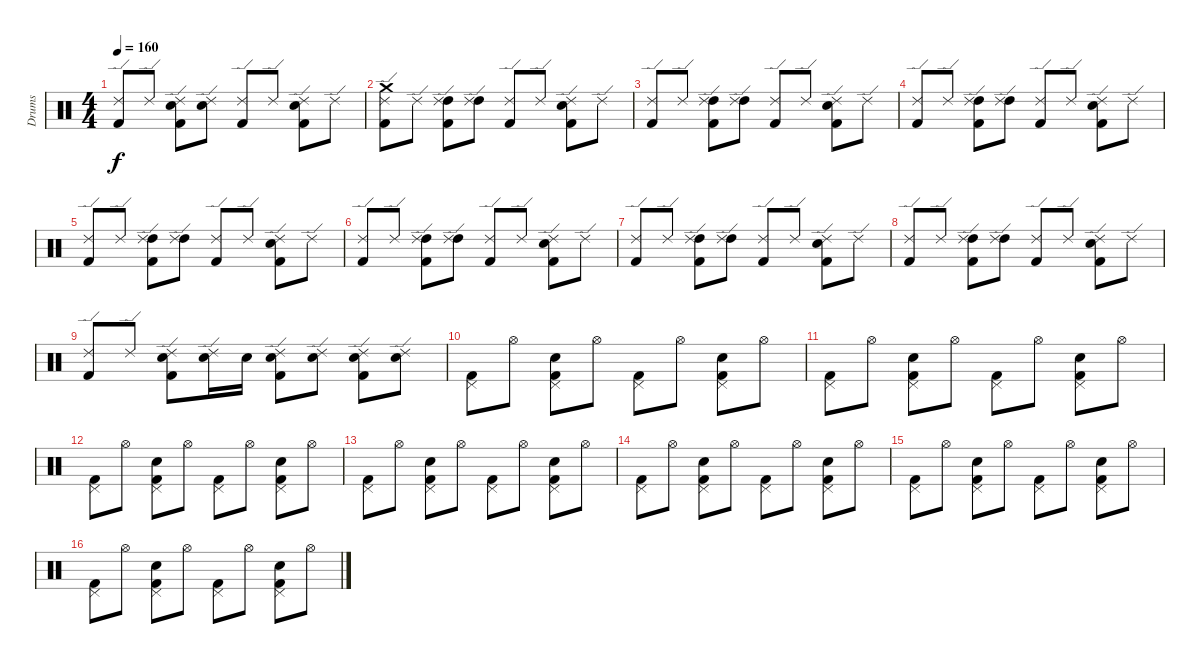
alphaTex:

\track ("Drums" "Drums") {instrument percussion}
\staff {score}
\articulation defaults
\ts (4 4)
\tempo 160
\clef neutral
\ks c
("Ride (edge) 2" "Kick (hit) 2").8{dy f} "Ride (edge) 2".8 ("Kick (hit) 2" "Ride (edge) 2" "Electric Snare (hit)").8 ("Ride (edge) 2" "Electric Snare (hit)").8 ("Ride (edge) 2" "Kick (hit) 2").8 "Ride (edge) 2".8 ("Kick (hit) 2" "Ride (edge) 2" "Electric Snare (hit)").8 "Ride (edge) 2".8 |
("Kick (hit) 2" "Crash medium (hit)" "Ride (edge) 2").8 "Ride (edge) 2".8 ("Kick (hit) 2" "High Tom (hit)" "Ride (edge) 2").8 ("High Tom (hit)" "Ride (edge) 2").8 ("Kick (hit) 2" "Ride (edge) 2").8 "Ride (edge) 2".8 ("Kick (hit) 2" "Ride (edge) 2" "Electric Snare (hit)").8 "Ride (edge) 2".8 |
("Kick (hit) 2" "Ride (edge) 2").8 "Ride (edge) 2".8 ("Kick (hit) 2" "High Tom (hit)" "Ride (edge) 2").8 ("High Tom (hit)" "Ride (edge) 2").8 ("Kick (hit) 2" "Ride (edge) 2").8 "Ride (edge) 2".8 ("Kick (hit) 2" "Ride (edge) 2" "Electric Snare (hit)").8 "Ride (edge) 2".8 |
("Kick (hit) 2" "Ride (edge) 2").8 "Ride (edge) 2".8 ("Kick (hit) 2" "High Tom (hit)" "Ride (edge) 2").8 ("High Tom (hit)" "Ride (edge) 2").8 ("Kick (hit) 2" "Ride (edge) 2").8 "Ride (edge) 2".8 ("Kick (hit) 2" "Ride (edge) 2" "Electric Snare (hit)").8 "Ride (edge) 2".8 |
("Kick (hit) 2" "Ride (edge) 2").8 "Ride (edge) 2".8 ("Kick (hit) 2" "High Tom (hit)" "Ride (edge) 2").8 ("High Tom (hit)" "Ride (edge) 2").8 ("Kick (hit) 2" "Ride (edge) 2").8 "Ride (edge) 2".8 ("Kick (hit) 2" "Ride (edge) 2" "Electric Snare (hit)").8 "Ride (edge) 2".8 |
("Kick (hit) 2" "Ride (edge) 2").8 "Ride (edge) 2".8 ("Kick (hit) 2" "High Tom (hit)" "Ride (edge) 2").8 ("High Tom (hit)" "Ride (edge) 2").8 ("Kick (hit) 2" "Ride (edge) 2").8 "Ride (edge) 2".8 ("Kick (hit) 2" "Ride (edge) 2" "Electric Snare (hit)").8 "Ride (edge) 2".8 |
("Kick (hit) 2" "Ride (edge) 2").8 "Ride (edge) 2".8 ("Kick (hit) 2" "High Tom (hit)" "Ride (edge) 2").8 ("High Tom (hit)" "Ride (edge) 2").8 ("Kick (hit) 2" "Ride (edge) 2").8 "Ride (edge) 2".8 ("Kick (hit) 2" "Ride (edge) 2" "Electric Snare (hit)").8 "Ride (edge) 2".8 |
("Kick (hit) 2" "Ride (edge) 2").8 "Ride (edge) 2".8 ("Kick (hit) 2" "High Tom (hit)" "Ride (edge) 2").8 ("High Tom (hit)" "Ride (edge) 2").8 ("Kick (hit) 2" "Ride (edge) 2").8 "Ride (edge) 2".8 ("Kick (hit) 2" "Ride (edge) 2" "Electric Snare (hit)").8 "Ride (edge) 2".8 |
("Kick (hit) 2" "Ride (edge) 2").8 "Ride (edge) 2".8 ("Kick (hit) 2" "Ride (edge) 2" "Electric Snare (hit)").8 ("Electric Snare (hit)" "Ride (edge) 2").16 "Electric Snare (hit)".16 ("Kick (hit) 2" "Electric Snare (hit)" "Ride (edge) 2").8 ("Electric Snare (hit)" "Ride (edge) 2").8 ("Kick (hit) 2" "Electric Snare (hit)" "Ride (edge) 2").8 ("Electric Snare (hit)" "Ride (edge) 2").8 |
("Pedal Hi-Hat (hit)" "Kick (hit) 2").8{volume 12 balance 8} "Hi-Hat (open)".8 ("Pedal Hi-Hat (hit)" "Electric Snare (hit)" "Kick (hit) 2").8 "Hi-Hat (open)".8 ("Pedal Hi-Hat (hit)" "Kick (hit) 2").8 "Hi-Hat (open)".8 ("Pedal Hi-Hat (hit)" "Electric Snare (hit)" "Kick (hit) 2").8 "Hi-Hat (open)".8 |
("Pedal Hi-Hat (hit)" "Kick (hit) 2").8 "Hi-Hat (open)".8 ("Pedal Hi-Hat (hit)" "Electric Snare (hit)" "Kick (hit) 2").8 "Hi-Hat (open)".8 ("Pedal Hi-Hat (hit)" "Kick (hit) 2").8 "Hi-Hat (open)".8 ("Pedal Hi-Hat (hit)" "Electric Snare (hit)" "Kick (hit) 2").8 "Hi-Hat (open)".8 |
("Pedal Hi-Hat (hit)" "Kick (hit) 2").8 "Hi-Hat (open)".8 ("Pedal Hi-Hat (hit)" "Electric Snare (hit)" "Kick (hit) 2").8 "Hi-Hat (open)".8 ("Pedal Hi-Hat (hit)" "Kick (hit) 2").8 "Hi-Hat (open)".8 ("Pedal Hi-Hat (hit)" "Electric Snare (hit)" "Kick (hit) 2").8 "Hi-Hat (open)".8 |
("Pedal Hi-Hat (hit)" "Kick (hit) 2").8 "Hi-Hat (open)".8 ("Pedal Hi-Hat (hit)" "Electric Snare (hit)" "Kick (hit) 2").8 "Hi-Hat (open)".8 ("Pedal Hi-Hat (hit)" "Kick (hit) 2").8 "Hi-Hat (open)".8 ("Pedal Hi-Hat (hit)" "Electric Snare (hit)" "Kick (hit) 2").8 "Hi-Hat (open)".8 |
("Pedal Hi-Hat (hit)" "Kick (hit) 2").8 "Hi-Hat (open)".8 ("Pedal Hi-Hat (hit)" "Electric Snare (hit)" "Kick (hit) 2").8 "Hi-Hat (open)".8 ("Pedal Hi-Hat (hit)" "Kick (hit) 2").8 "Hi-Hat (open)".8 ("Pedal Hi-Hat (hit)" "Electric Snare (hit)" "Kick (hit) 2").8 "Hi-Hat (open)".8 |
("Pedal Hi-Hat (hit)" "Kick (hit) 2").8 "Hi-Hat (open)".8 ("Pedal Hi-Hat (hit)" "Electric Snare (hit)" "Kick (hit) 2").8 "Hi-Hat (open)".8 ("Pedal Hi-Hat (hit)" "Kick (hit) 2").8 "Hi-Hat (open)".8 ("Pedal Hi-Hat (hit)" "Electric Snare (hit)" "Kick (hit) 2").8 "Hi-Hat (open)".8 |
("Pedal Hi-Hat (hit)" "Kick (hit) 2").8 "Hi-Hat (open)".8 ("Pedal Hi-Hat (hit)" "Electric Snare (hit)" "Kick (hit) 2").8 "Hi-Hat (open)".8 ("Pedal Hi-Hat (hit)" "Kick (hit) 2").8 "Hi-Hat (open)".8 ("Pedal Hi-Hat (hit)" "Electric Snare (hit)" "Kick (hit) 2").8 "Hi-Hat (open)".8
